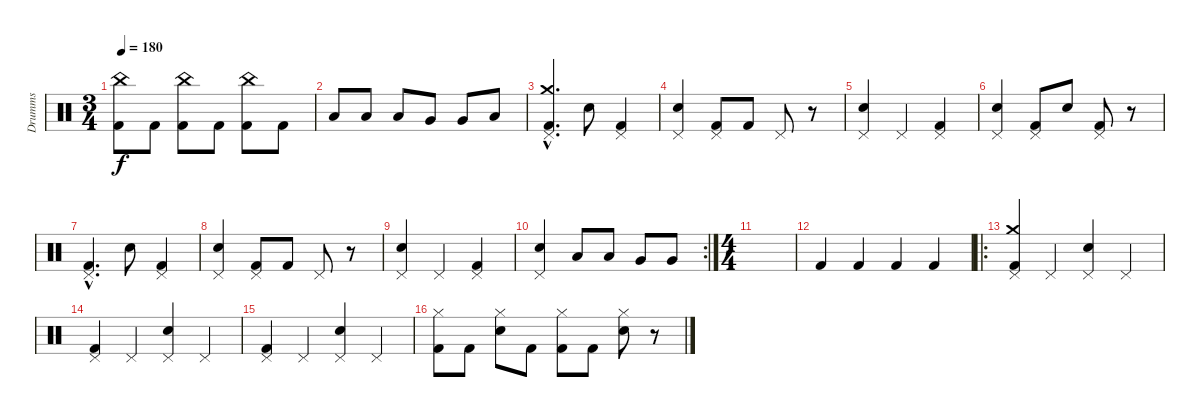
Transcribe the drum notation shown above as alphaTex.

\track ("Drumms" "Drumms") {instrument percussion}
\staff {score}
\articulation defaults
\ts (3 4)
\tempo 180
\clef neutral
\ks c
("Kick (hit) 2" "China (hit)").8{dy f} "Kick (hit) 2".8 ("Kick (hit) 2" "China (hit)").8 "Kick (hit) 2".8 ("Kick (hit) 2" "China (hit)").8 "Kick (hit) 2".8 |
"Low Tom (hit)".8 "Low Tom (hit)".8 "Low Tom (hit)".8 "Very Low Tom (hit)".8 "Very Low Tom (hit)".8 "Low Floor Tom (hit)".8 |
("Kick (hit) 2"{hac} "Crash medium (hit)"{hac} "Pedal Hi-Hat (hit)"{hac}).4{d} "Snare (hit) 2".8 ("Kick (hit) 2" "Pedal Hi-Hat (hit)").4 |
("Snare (hit) 2" "Pedal Hi-Hat (hit)").4 ("Kick (hit) 2" "Pedal Hi-Hat (hit)").8 "Kick (hit) 2".8 "Pedal Hi-Hat (hit)".8 r.8 |
("Snare (hit) 2" "Pedal Hi-Hat (hit)").4 "Pedal Hi-Hat (hit)".4 ("Kick (hit) 2" "Pedal Hi-Hat (hit)").4 |
("Snare (hit) 2" "Pedal Hi-Hat (hit)").4 ("Kick (hit) 2" "Pedal Hi-Hat (hit)").8 "Snare (hit) 2".8 ("Kick (hit) 2" "Pedal Hi-Hat (hit)").8 r.8 |
("Kick (hit) 2"{hac} "Pedal Hi-Hat (hit)"{hac}).4{d} "Snare (hit) 2".8 ("Kick (hit) 2" "Pedal Hi-Hat (hit)").4 |
("Snare (hit) 2" "Pedal Hi-Hat (hit)").4 ("Kick (hit) 2" "Pedal Hi-Hat (hit)").8 "Kick (hit) 2".8 "Pedal Hi-Hat (hit)".8 r.8 |
("Snare (hit) 2" "Pedal Hi-Hat (hit)").4 "Pedal Hi-Hat (hit)".4 ("Kick (hit) 2" "Pedal Hi-Hat (hit)").4 |
\rc 2
("Snare (hit) 2" "Pedal Hi-Hat (hit)").4 "Low Tom (hit)".8 "Low Tom (hit)".8 "Very Low Tom (hit)".8 "Very Low Tom (hit)".8 |
\ts (4 4)
|
"Kick (hit) 2".4 "Kick (hit) 2".4 "Kick (hit) 2".4 "Kick (hit) 2".4 |
\ro
("Kick (hit) 2" "Crash medium (hit)" "Pedal Hi-Hat (hit)").4 "Pedal Hi-Hat (hit)".4 ("Snare (hit) 2" "Pedal Hi-Hat (hit)").4 "Pedal Hi-Hat (hit)".4 |
("Kick (hit) 2" "Pedal Hi-Hat (hit)").4 "Pedal Hi-Hat (hit)".4 ("Snare (hit) 2" "Pedal Hi-Hat (hit)").4 "Pedal Hi-Hat (hit)".4 |
("Kick (hit) 2" "Pedal Hi-Hat (hit)").4 "Pedal Hi-Hat (hit)".4 ("Snare (hit) 2" "Pedal Hi-Hat (hit)").4 "Pedal Hi-Hat (hit)".4 |
("Kick (hit) 2" "Hi-Hat (closed)").8 "Kick (hit) 2".8 ("Snare (hit) 2" "Hi-Hat (closed)").8 "Kick (hit) 2".8 ("Kick (hit) 2" "Hi-Hat (closed)").8 "Kick (hit) 2".8 ("Snare (hit) 2" "Hi-Hat (closed)").8 r.8
